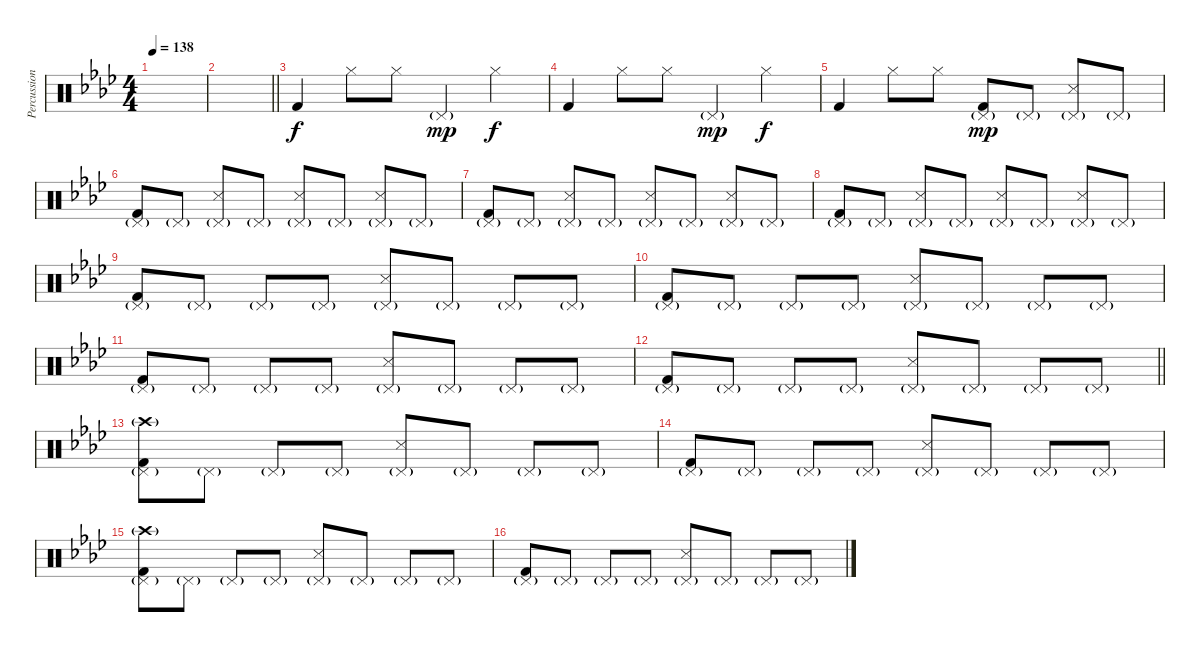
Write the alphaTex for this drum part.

\track ("Percussion" "Percussion") {instrument percussion}
\staff {score}
\articulation defaults
\ts (4 4)
\tempo 138
\clef neutral
\ks ab
|
\barLineRight lightlight
|
"Kick (hit) 2".4{dy f} "Hi-Hat (closed)".8 "Hi-Hat (closed)".8 "Pedal Hi-Hat (hit)"{g}.4{dy mp} "Hi-Hat (closed)".4{dy f} |
"Kick (hit) 2".4 "Hi-Hat (closed)".8 "Hi-Hat (closed)".8 "Pedal Hi-Hat (hit)"{g}.4{dy mp} "Hi-Hat (closed)".4{dy f} |
"Kick (hit) 2".4 "Hi-Hat (closed)".8 "Hi-Hat (closed)".8 ("Kick (hit) 2" "Pedal Hi-Hat (hit)"{g}).8{dy mp} "Pedal Hi-Hat (hit)"{g}.8 ("Snare (side stick) 3" "Pedal Hi-Hat (hit)"{g}).8 "Pedal Hi-Hat (hit)"{g}.8 |
("Kick (hit) 2" "Pedal Hi-Hat (hit)"{g}).8 "Pedal Hi-Hat (hit)"{g}.8 ("Snare (side stick) 3" "Pedal Hi-Hat (hit)"{g}).8 "Pedal Hi-Hat (hit)"{g}.8 ("Snare (side stick) 3" "Pedal Hi-Hat (hit)"{g}).8 "Pedal Hi-Hat (hit)"{g}.8 ("Snare (side stick) 3" "Pedal Hi-Hat (hit)"{g}).8 "Pedal Hi-Hat (hit)"{g}.8 |
("Kick (hit) 2" "Pedal Hi-Hat (hit)"{g}).8 "Pedal Hi-Hat (hit)"{g}.8 ("Snare (side stick) 3" "Pedal Hi-Hat (hit)"{g}).8 "Pedal Hi-Hat (hit)"{g}.8 ("Snare (side stick) 3" "Pedal Hi-Hat (hit)"{g}).8 "Pedal Hi-Hat (hit)"{g}.8 ("Snare (side stick) 3" "Pedal Hi-Hat (hit)"{g}).8 "Pedal Hi-Hat (hit)"{g}.8 |
("Kick (hit) 2" "Pedal Hi-Hat (hit)"{g}).8 "Pedal Hi-Hat (hit)"{g}.8 ("Snare (side stick) 3" "Pedal Hi-Hat (hit)"{g}).8 "Pedal Hi-Hat (hit)"{g}.8 ("Snare (side stick) 3" "Pedal Hi-Hat (hit)"{g}).8 "Pedal Hi-Hat (hit)"{g}.8 ("Snare (side stick) 3" "Pedal Hi-Hat (hit)"{g}).8 "Pedal Hi-Hat (hit)"{g}.8 |
("Kick (hit) 2" "Pedal Hi-Hat (hit)"{g}).8 "Pedal Hi-Hat (hit)"{g}.8 "Pedal Hi-Hat (hit)"{g}.8 "Pedal Hi-Hat (hit)"{g}.8 ("Snare (side stick) 3" "Pedal Hi-Hat (hit)"{g}).8 "Pedal Hi-Hat (hit)"{g}.8 "Pedal Hi-Hat (hit)"{g}.8 "Pedal Hi-Hat (hit)"{g}.8 |
("Kick (hit) 2" "Pedal Hi-Hat (hit)"{g}).8 "Pedal Hi-Hat (hit)"{g}.8 "Pedal Hi-Hat (hit)"{g}.8 "Pedal Hi-Hat (hit)"{g}.8 ("Snare (side stick) 3" "Pedal Hi-Hat (hit)"{g}).8 "Pedal Hi-Hat (hit)"{g}.8 "Pedal Hi-Hat (hit)"{g}.8 "Pedal Hi-Hat (hit)"{g}.8 |
("Kick (hit) 2" "Pedal Hi-Hat (hit)"{g}).8 "Pedal Hi-Hat (hit)"{g}.8 "Pedal Hi-Hat (hit)"{g}.8 "Pedal Hi-Hat (hit)"{g}.8 ("Snare (side stick) 3" "Pedal Hi-Hat (hit)"{g}).8 "Pedal Hi-Hat (hit)"{g}.8 "Pedal Hi-Hat (hit)"{g}.8 "Pedal Hi-Hat (hit)"{g}.8 |
\barLineRight lightlight
("Kick (hit) 2" "Pedal Hi-Hat (hit)"{g}).8 "Pedal Hi-Hat (hit)"{g}.8 "Pedal Hi-Hat (hit)"{g}.8 "Pedal Hi-Hat (hit)"{g}.8 ("Snare (side stick) 3" "Pedal Hi-Hat (hit)"{g}).8 "Pedal Hi-Hat (hit)"{g}.8 "Pedal Hi-Hat (hit)"{g}.8 "Pedal Hi-Hat (hit)"{g}.8 |
("Crash high (hit)"{g} "Kick (hit) 2" "Pedal Hi-Hat (hit)"{g}).8 "Pedal Hi-Hat (hit)"{g}.8 "Pedal Hi-Hat (hit)"{g}.8 "Pedal Hi-Hat (hit)"{g}.8 ("Snare (side stick) 3" "Pedal Hi-Hat (hit)"{g}).8 "Pedal Hi-Hat (hit)"{g}.8 "Pedal Hi-Hat (hit)"{g}.8 "Pedal Hi-Hat (hit)"{g}.8 |
("Kick (hit) 2" "Pedal Hi-Hat (hit)"{g}).8 "Pedal Hi-Hat (hit)"{g}.8 "Pedal Hi-Hat (hit)"{g}.8 "Pedal Hi-Hat (hit)"{g}.8 ("Snare (side stick) 3" "Pedal Hi-Hat (hit)"{g}).8 "Pedal Hi-Hat (hit)"{g}.8 "Pedal Hi-Hat (hit)"{g}.8 "Pedal Hi-Hat (hit)"{g}.8 |
("Crash high (hit)"{g} "Kick (hit) 2" "Pedal Hi-Hat (hit)"{g}).8 "Pedal Hi-Hat (hit)"{g}.8 "Pedal Hi-Hat (hit)"{g}.8 "Pedal Hi-Hat (hit)"{g}.8 ("Snare (side stick) 3" "Pedal Hi-Hat (hit)"{g}).8 "Pedal Hi-Hat (hit)"{g}.8 "Pedal Hi-Hat (hit)"{g}.8 "Pedal Hi-Hat (hit)"{g}.8 |
("Kick (hit) 2" "Pedal Hi-Hat (hit)"{g}).8 "Pedal Hi-Hat (hit)"{g}.8 "Pedal Hi-Hat (hit)"{g}.8 "Pedal Hi-Hat (hit)"{g}.8 ("Snare (side stick) 3" "Pedal Hi-Hat (hit)"{g}).8 "Pedal Hi-Hat (hit)"{g}.8 "Pedal Hi-Hat (hit)"{g}.8 "Pedal Hi-Hat (hit)"{g}.8
